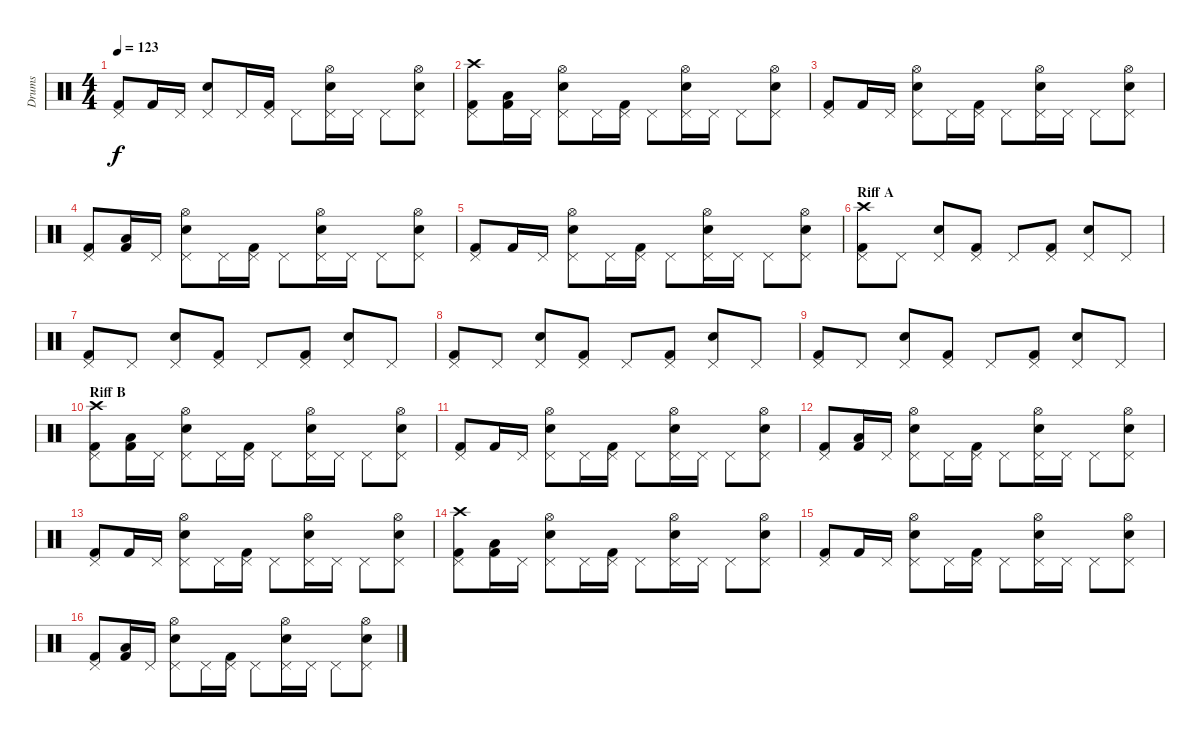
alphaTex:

\track ("Drums" "Drums") {instrument percussion}
\staff {score}
\articulation defaults
\ts (4 4)
\tempo 123
\clef neutral
\ks c
("Kick (hit) 2" "Pedal Hi-Hat (hit)").8{dy f} "Kick (hit) 2".16 "Pedal Hi-Hat (hit)".16 ("Snare (hit) 2" "Pedal Hi-Hat (hit)").8 "Pedal Hi-Hat (hit)".16 ("Kick (hit) 2" "Pedal Hi-Hat (hit)").16 "Pedal Hi-Hat (hit)".8 ("Snare (hit) 2" "Pedal Hi-Hat (hit)" "Hi-Hat (open)").16 "Pedal Hi-Hat (hit)".16 "Pedal Hi-Hat (hit)".8 ("Snare (hit) 2" "Pedal Hi-Hat (hit)" "Hi-Hat (open)").8 |
("Kick (hit) 2" "Pedal Hi-Hat (hit)" "Crash high (hit)").8 ("Kick (hit) 2" "Low Tom (hit)").16 "Pedal Hi-Hat (hit)".16 ("Snare (hit) 2" "Pedal Hi-Hat (hit)" "Hi-Hat (open)").8 "Pedal Hi-Hat (hit)".16 ("Kick (hit) 2" "Pedal Hi-Hat (hit)").16 "Pedal Hi-Hat (hit)".8 ("Snare (hit) 2" "Pedal Hi-Hat (hit)" "Hi-Hat (open)").16 "Pedal Hi-Hat (hit)".16 "Pedal Hi-Hat (hit)".8 ("Snare (hit) 2" "Pedal Hi-Hat (hit)" "Hi-Hat (open)").8 |
("Kick (hit) 2" "Pedal Hi-Hat (hit)").8 "Kick (hit) 2".16 "Pedal Hi-Hat (hit)".16 ("Snare (hit) 2" "Pedal Hi-Hat (hit)" "Hi-Hat (open)").8 "Pedal Hi-Hat (hit)".16 ("Kick (hit) 2" "Pedal Hi-Hat (hit)").16 "Pedal Hi-Hat (hit)".8 ("Snare (hit) 2" "Pedal Hi-Hat (hit)" "Hi-Hat (open)").16 "Pedal Hi-Hat (hit)".16 "Pedal Hi-Hat (hit)".8 ("Snare (hit) 2" "Pedal Hi-Hat (hit)" "Hi-Hat (open)").8 |
("Kick (hit) 2" "Pedal Hi-Hat (hit)").8 ("Kick (hit) 2" "Low Tom (hit)").16 "Pedal Hi-Hat (hit)".16 ("Snare (hit) 2" "Pedal Hi-Hat (hit)" "Hi-Hat (open)").8 "Pedal Hi-Hat (hit)".16 ("Kick (hit) 2" "Pedal Hi-Hat (hit)").16 "Pedal Hi-Hat (hit)".8 ("Snare (hit) 2" "Pedal Hi-Hat (hit)" "Hi-Hat (open)").16 "Pedal Hi-Hat (hit)".16 "Pedal Hi-Hat (hit)".8 ("Snare (hit) 2" "Pedal Hi-Hat (hit)" "Hi-Hat (open)").8 |
("Kick (hit) 2" "Pedal Hi-Hat (hit)").8 "Kick (hit) 2".16 "Pedal Hi-Hat (hit)".16 ("Snare (hit) 2" "Pedal Hi-Hat (hit)" "Hi-Hat (open)").8 "Pedal Hi-Hat (hit)".16 ("Kick (hit) 2" "Pedal Hi-Hat (hit)").16 "Pedal Hi-Hat (hit)".8 ("Snare (hit) 2" "Pedal Hi-Hat (hit)" "Hi-Hat (open)").16 "Pedal Hi-Hat (hit)".16 "Pedal Hi-Hat (hit)".8 ("Snare (hit) 2" "Pedal Hi-Hat (hit)" "Hi-Hat (open)").8 |
\section ("" "Riff A")
("Kick (hit) 2" "Pedal Hi-Hat (hit)" "Crash high (hit)").8 "Pedal Hi-Hat (hit)".8 ("Snare (hit) 2" "Pedal Hi-Hat (hit)").8 ("Kick (hit) 2" "Pedal Hi-Hat (hit)").8 "Pedal Hi-Hat (hit)".8 ("Kick (hit) 2" "Pedal Hi-Hat (hit)").8 ("Snare (hit) 2" "Pedal Hi-Hat (hit)").8 "Pedal Hi-Hat (hit)".8 |
("Kick (hit) 2" "Pedal Hi-Hat (hit)").8 "Pedal Hi-Hat (hit)".8 ("Snare (hit) 2" "Pedal Hi-Hat (hit)").8 ("Kick (hit) 2" "Pedal Hi-Hat (hit)").8 "Pedal Hi-Hat (hit)".8 ("Kick (hit) 2" "Pedal Hi-Hat (hit)").8 ("Snare (hit) 2" "Pedal Hi-Hat (hit)").8 "Pedal Hi-Hat (hit)".8 |
("Kick (hit) 2" "Pedal Hi-Hat (hit)").8 "Pedal Hi-Hat (hit)".8 ("Snare (hit) 2" "Pedal Hi-Hat (hit)").8 ("Kick (hit) 2" "Pedal Hi-Hat (hit)").8 "Pedal Hi-Hat (hit)".8 ("Kick (hit) 2" "Pedal Hi-Hat (hit)").8 ("Snare (hit) 2" "Pedal Hi-Hat (hit)").8 "Pedal Hi-Hat (hit)".8 |
("Kick (hit) 2" "Pedal Hi-Hat (hit)").8 "Pedal Hi-Hat (hit)".8 ("Snare (hit) 2" "Pedal Hi-Hat (hit)").8 ("Kick (hit) 2" "Pedal Hi-Hat (hit)").8 "Pedal Hi-Hat (hit)".8 ("Kick (hit) 2" "Pedal Hi-Hat (hit)").8 ("Snare (hit) 2" "Pedal Hi-Hat (hit)").8 "Pedal Hi-Hat (hit)".8 |
\section ("" "Riff B")
("Kick (hit) 2" "Pedal Hi-Hat (hit)" "Crash high (hit)").8 ("Kick (hit) 2" "Low Tom (hit)").16 "Pedal Hi-Hat (hit)".16 ("Snare (hit) 2" "Pedal Hi-Hat (hit)" "Hi-Hat (open)").8 "Pedal Hi-Hat (hit)".16 ("Kick (hit) 2" "Pedal Hi-Hat (hit)").16 "Pedal Hi-Hat (hit)".8 ("Snare (hit) 2" "Pedal Hi-Hat (hit)" "Hi-Hat (open)").16 "Pedal Hi-Hat (hit)".16 "Pedal Hi-Hat (hit)".8 ("Snare (hit) 2" "Pedal Hi-Hat (hit)" "Hi-Hat (open)").8 |
("Kick (hit) 2" "Pedal Hi-Hat (hit)").8 "Kick (hit) 2".16 "Pedal Hi-Hat (hit)".16 ("Snare (hit) 2" "Pedal Hi-Hat (hit)" "Hi-Hat (open)").8 "Pedal Hi-Hat (hit)".16 ("Kick (hit) 2" "Pedal Hi-Hat (hit)").16 "Pedal Hi-Hat (hit)".8 ("Snare (hit) 2" "Pedal Hi-Hat (hit)" "Hi-Hat (open)").16 "Pedal Hi-Hat (hit)".16 "Pedal Hi-Hat (hit)".8 ("Snare (hit) 2" "Pedal Hi-Hat (hit)" "Hi-Hat (open)").8 |
("Kick (hit) 2" "Pedal Hi-Hat (hit)").8 ("Kick (hit) 2" "Low Tom (hit)").16 "Pedal Hi-Hat (hit)".16 ("Snare (hit) 2" "Pedal Hi-Hat (hit)" "Hi-Hat (open)").8 "Pedal Hi-Hat (hit)".16 ("Kick (hit) 2" "Pedal Hi-Hat (hit)").16 "Pedal Hi-Hat (hit)".8 ("Snare (hit) 2" "Pedal Hi-Hat (hit)" "Hi-Hat (open)").16 "Pedal Hi-Hat (hit)".16 "Pedal Hi-Hat (hit)".8 ("Snare (hit) 2" "Pedal Hi-Hat (hit)" "Hi-Hat (open)").8 |
("Kick (hit) 2" "Pedal Hi-Hat (hit)").8 "Kick (hit) 2".16 "Pedal Hi-Hat (hit)".16 ("Snare (hit) 2" "Pedal Hi-Hat (hit)" "Hi-Hat (open)").8 "Pedal Hi-Hat (hit)".16 ("Kick (hit) 2" "Pedal Hi-Hat (hit)").16 "Pedal Hi-Hat (hit)".8 ("Snare (hit) 2" "Pedal Hi-Hat (hit)" "Hi-Hat (open)").16 "Pedal Hi-Hat (hit)".16 "Pedal Hi-Hat (hit)".8 ("Snare (hit) 2" "Pedal Hi-Hat (hit)" "Hi-Hat (open)").8 |
("Kick (hit) 2" "Pedal Hi-Hat (hit)" "Crash high (hit)").8 ("Kick (hit) 2" "Low Tom (hit)").16 "Pedal Hi-Hat (hit)".16 ("Snare (hit) 2" "Pedal Hi-Hat (hit)" "Hi-Hat (open)").8 "Pedal Hi-Hat (hit)".16 ("Kick (hit) 2" "Pedal Hi-Hat (hit)").16 "Pedal Hi-Hat (hit)".8 ("Snare (hit) 2" "Pedal Hi-Hat (hit)" "Hi-Hat (open)").16 "Pedal Hi-Hat (hit)".16 "Pedal Hi-Hat (hit)".8 ("Snare (hit) 2" "Pedal Hi-Hat (hit)" "Hi-Hat (open)").8 |
("Kick (hit) 2" "Pedal Hi-Hat (hit)").8 "Kick (hit) 2".16 "Pedal Hi-Hat (hit)".16 ("Snare (hit) 2" "Pedal Hi-Hat (hit)" "Hi-Hat (open)").8 "Pedal Hi-Hat (hit)".16 ("Kick (hit) 2" "Pedal Hi-Hat (hit)").16 "Pedal Hi-Hat (hit)".8 ("Snare (hit) 2" "Pedal Hi-Hat (hit)" "Hi-Hat (open)").16 "Pedal Hi-Hat (hit)".16 "Pedal Hi-Hat (hit)".8 ("Snare (hit) 2" "Pedal Hi-Hat (hit)" "Hi-Hat (open)").8 |
("Kick (hit) 2" "Pedal Hi-Hat (hit)").8 ("Kick (hit) 2" "Low Tom (hit)").16 "Pedal Hi-Hat (hit)".16 ("Snare (hit) 2" "Pedal Hi-Hat (hit)" "Hi-Hat (open)").8 "Pedal Hi-Hat (hit)".16 ("Kick (hit) 2" "Pedal Hi-Hat (hit)").16 "Pedal Hi-Hat (hit)".8 ("Snare (hit) 2" "Pedal Hi-Hat (hit)" "Hi-Hat (open)").16 "Pedal Hi-Hat (hit)".16 "Pedal Hi-Hat (hit)".8 ("Snare (hit) 2" "Pedal Hi-Hat (hit)" "Hi-Hat (open)").8
